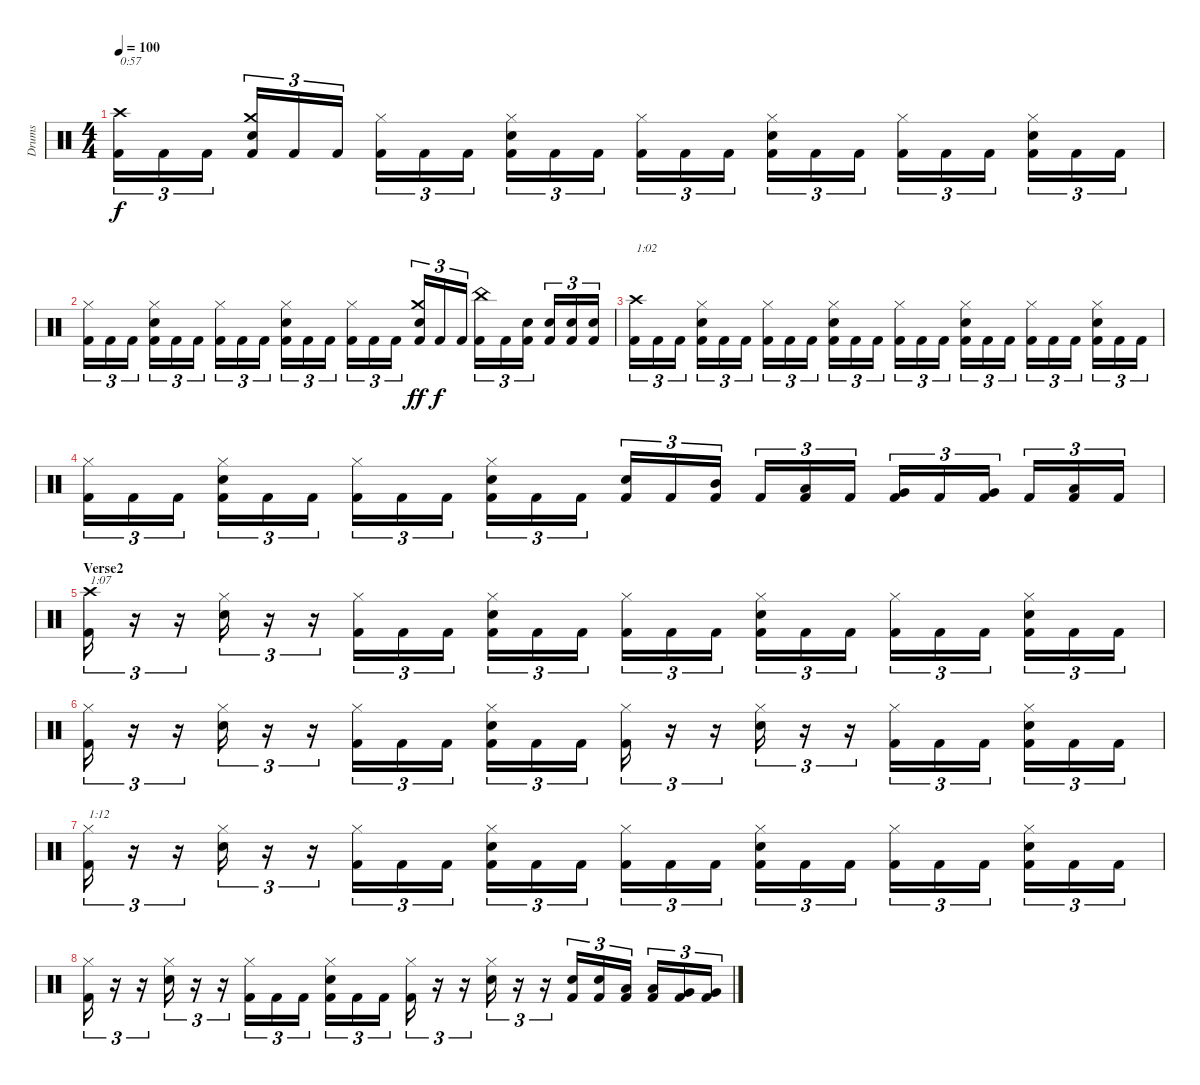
\track ("Drums" "Drums") {instrument percussion}
\staff {score}
\articulation defaults
\ts (4 4)
\tempo 100
\clef neutral
\ks c
("Crash high (hit)" "Kick (hit) 2").16{tu (3 2) txt "0:57" dy f} "Kick (hit) 2".16{tu (3 2)} "Kick (hit) 2".16{tu (3 2)} ("Crash medium (hit)" "Snare (hit) 2" "Kick (hit) 2").16{tu (3 2)} "Kick (hit) 2".16{tu (3 2)} "Kick (hit) 2".16{tu (3 2)} ("Hi-Hat (closed)" "Kick (hit) 2").16{tu (3 2)} "Kick (hit) 2".16{tu (3 2)} "Kick (hit) 2".16{tu (3 2)} ("Hi-Hat (closed)" "Snare (hit) 2" "Kick (hit) 2").16{tu (3 2)} "Kick (hit) 2".16{tu (3 2)} "Kick (hit) 2".16{tu (3 2)} ("Hi-Hat (closed)" "Kick (hit) 2").16{tu (3 2)} "Kick (hit) 2".16{tu (3 2)} "Kick (hit) 2".16{tu (3 2)} ("Hi-Hat (closed)" "Snare (hit) 2" "Kick (hit) 2").16{tu (3 2)} "Kick (hit) 2".16{tu (3 2)} "Kick (hit) 2".16{tu (3 2)} ("Hi-Hat (closed)" "Kick (hit) 2").16{tu (3 2)} "Kick (hit) 2".16{tu (3 2)} "Kick (hit) 2".16{tu (3 2)} ("Hi-Hat (closed)" "Snare (hit) 2" "Kick (hit) 2").16{tu (3 2)} "Kick (hit) 2".16{tu (3 2)} "Kick (hit) 2".16{tu (3 2)} |
("Hi-Hat (closed)" "Kick (hit) 2").16{tu (3 2)} "Kick (hit) 2".16{tu (3 2)} "Kick (hit) 2".16{tu (3 2)} ("Hi-Hat (closed)" "Snare (hit) 2" "Kick (hit) 2").16{tu (3 2)} "Kick (hit) 2".16{tu (3 2)} "Kick (hit) 2".16{tu (3 2)} ("Hi-Hat (closed)" "Kick (hit) 2").16{tu (3 2)} "Kick (hit) 2".16{tu (3 2)} "Kick (hit) 2".16{tu (3 2)} ("Hi-Hat (closed)" "Snare (hit) 2" "Kick (hit) 2").16{tu (3 2)} "Kick (hit) 2".16{tu (3 2)} "Kick (hit) 2".16{tu (3 2)} ("Hi-Hat (closed)" "Kick (hit) 2").16{tu (3 2)} "Kick (hit) 2".16{tu (3 2)} "Kick (hit) 2".16{tu (3 2)} ("Crash medium (hit)" "Snare (hit) 2" "Kick (hit) 2").16{tu (3 2) dy ff} "Kick (hit) 2".16{tu (3 2) dy f} "Kick (hit) 2".16{tu (3 2)} ("China (hit)" "Kick (hit) 2").16{tu (3 2)} "Kick (hit) 2".16{tu (3 2)} ("Snare (hit) 2" "Kick (hit) 2").16{tu (3 2)} ("Snare (hit) 2" "Kick (hit) 2").16{tu (3 2)} ("Snare (hit) 2" "Kick (hit) 2").16{tu (3 2)} ("Snare (hit) 2" "Kick (hit) 2").16{tu (3 2)} |
("Crash high (hit)" "Kick (hit) 2").16{tu (3 2) txt "1:02"} "Kick (hit) 2".16{tu (3 2)} "Kick (hit) 2".16{tu (3 2)} ("Hi-Hat (closed)" "Snare (hit) 2" "Kick (hit) 2").16{tu (3 2)} "Kick (hit) 2".16{tu (3 2)} "Kick (hit) 2".16{tu (3 2)} ("Hi-Hat (closed)" "Kick (hit) 2").16{tu (3 2)} "Kick (hit) 2".16{tu (3 2)} "Kick (hit) 2".16{tu (3 2)} ("Hi-Hat (closed)" "Snare (hit) 2" "Kick (hit) 2").16{tu (3 2)} "Kick (hit) 2".16{tu (3 2)} "Kick (hit) 2".16{tu (3 2)} ("Hi-Hat (closed)" "Kick (hit) 2").16{tu (3 2)} "Kick (hit) 2".16{tu (3 2)} "Kick (hit) 2".16{tu (3 2)} ("Hi-Hat (closed)" "Snare (hit) 2" "Kick (hit) 2").16{tu (3 2)} "Kick (hit) 2".16{tu (3 2)} "Kick (hit) 2".16{tu (3 2)} ("Hi-Hat (closed)" "Kick (hit) 2").16{tu (3 2)} "Kick (hit) 2".16{tu (3 2)} "Kick (hit) 2".16{tu (3 2)} ("Hi-Hat (closed)" "Snare (hit) 2" "Kick (hit) 2").16{tu (3 2)} "Kick (hit) 2".16{tu (3 2)} "Kick (hit) 2".16{tu (3 2)} |
("Hi-Hat (closed)" "Kick (hit) 2").16{tu (3 2)} "Kick (hit) 2".16{tu (3 2)} "Kick (hit) 2".16{tu (3 2)} ("Hi-Hat (closed)" "Snare (hit) 2" "Kick (hit) 2").16{tu (3 2)} "Kick (hit) 2".16{tu (3 2)} "Kick (hit) 2".16{tu (3 2)} ("Hi-Hat (closed)" "Kick (hit) 2").16{tu (3 2)} "Kick (hit) 2".16{tu (3 2)} "Kick (hit) 2".16{tu (3 2)} ("Hi-Hat (closed)" "Snare (hit) 2" "Kick (hit) 2").16{tu (3 2)} "Kick (hit) 2".16{tu (3 2)} "Kick (hit) 2".16{tu (3 2)} ("Snare (hit) 2" "Kick (hit) 2").16{tu (3 2)} "Kick (hit) 2".16{tu (3 2)} ("Mid Tom (hit)" "Kick (hit) 2").16{tu (3 2)} "Kick (hit) 2".16{tu (3 2)} ("Low Tom (hit)" "Kick (hit) 2").16{tu (3 2)} "Kick (hit) 2".16{tu (3 2)} ("Very Low Tom (hit)" "Kick (hit) 2").16{tu (3 2)} "Kick (hit) 2".16{tu (3 2)} ("Very Low Tom (hit)" "Kick (hit) 2").16{tu (3 2)} "Kick (hit) 2".16{tu (3 2)} ("Low Floor Tom (hit)" "Kick (hit) 2").16{tu (3 2)} "Kick (hit) 2".16{tu (3 2)} |
\section ("" "Verse2")
("Crash high (hit)" "Kick (hit) 2").16{tu (3 2) txt "1:07"} r.16{tu (3 2)} r.16{tu (3 2)} ("Hi-Hat (closed)" "Snare (hit) 2").16{tu (3 2)} r.16{tu (3 2)} r.16{tu (3 2)} ("Hi-Hat (closed)" "Kick (hit) 2").16{tu (3 2)} "Kick (hit) 2".16{tu (3 2)} "Kick (hit) 2".16{tu (3 2)} ("Hi-Hat (closed)" "Snare (hit) 2" "Kick (hit) 2").16{tu (3 2)} "Kick (hit) 2".16{tu (3 2)} "Kick (hit) 2".16{tu (3 2)} ("Hi-Hat (closed)" "Kick (hit) 2").16{tu (3 2)} "Kick (hit) 2".16{tu (3 2)} "Kick (hit) 2".16{tu (3 2)} ("Hi-Hat (closed)" "Snare (hit) 2" "Kick (hit) 2").16{tu (3 2)} "Kick (hit) 2".16{tu (3 2)} "Kick (hit) 2".16{tu (3 2)} ("Hi-Hat (closed)" "Kick (hit) 2").16{tu (3 2)} "Kick (hit) 2".16{tu (3 2)} "Kick (hit) 2".16{tu (3 2)} ("Hi-Hat (closed)" "Snare (hit) 2" "Kick (hit) 2").16{tu (3 2)} "Kick (hit) 2".16{tu (3 2)} "Kick (hit) 2".16{tu (3 2)} |
("Hi-Hat (closed)" "Kick (hit) 2").16{tu (3 2)} r.16{tu (3 2)} r.16{tu (3 2)} ("Hi-Hat (closed)" "Snare (hit) 2").16{tu (3 2)} r.16{tu (3 2)} r.16{tu (3 2)} ("Hi-Hat (closed)" "Kick (hit) 2").16{tu (3 2)} "Kick (hit) 2".16{tu (3 2)} "Kick (hit) 2".16{tu (3 2)} ("Hi-Hat (closed)" "Snare (hit) 2" "Kick (hit) 2").16{tu (3 2)} "Kick (hit) 2".16{tu (3 2)} "Kick (hit) 2".16{tu (3 2)} ("Hi-Hat (closed)" "Kick (hit) 2").16{tu (3 2)} r.16{tu (3 2)} r.16{tu (3 2)} ("Hi-Hat (closed)" "Snare (hit) 2").16{tu (3 2)} r.16{tu (3 2)} r.16{tu (3 2)} ("Hi-Hat (closed)" "Kick (hit) 2").16{tu (3 2)} "Kick (hit) 2".16{tu (3 2)} "Kick (hit) 2".16{tu (3 2)} ("Hi-Hat (closed)" "Snare (hit) 2" "Kick (hit) 2").16{tu (3 2)} "Kick (hit) 2".16{tu (3 2)} "Kick (hit) 2".16{tu (3 2)} |
("Hi-Hat (closed)" "Kick (hit) 2").16{tu (3 2) txt "1:12"} r.16{tu (3 2)} r.16{tu (3 2)} ("Hi-Hat (closed)" "Snare (hit) 2").16{tu (3 2)} r.16{tu (3 2)} r.16{tu (3 2)} ("Hi-Hat (closed)" "Kick (hit) 2").16{tu (3 2)} "Kick (hit) 2".16{tu (3 2)} "Kick (hit) 2".16{tu (3 2)} ("Hi-Hat (closed)" "Snare (hit) 2" "Kick (hit) 2").16{tu (3 2)} "Kick (hit) 2".16{tu (3 2)} "Kick (hit) 2".16{tu (3 2)} ("Hi-Hat (closed)" "Kick (hit) 2").16{tu (3 2)} "Kick (hit) 2".16{tu (3 2)} "Kick (hit) 2".16{tu (3 2)} ("Hi-Hat (closed)" "Snare (hit) 2" "Kick (hit) 2").16{tu (3 2)} "Kick (hit) 2".16{tu (3 2)} "Kick (hit) 2".16{tu (3 2)} ("Hi-Hat (closed)" "Kick (hit) 2").16{tu (3 2)} "Kick (hit) 2".16{tu (3 2)} "Kick (hit) 2".16{tu (3 2)} ("Hi-Hat (closed)" "Snare (hit) 2" "Kick (hit) 2").16{tu (3 2)} "Kick (hit) 2".16{tu (3 2)} "Kick (hit) 2".16{tu (3 2)} |
("Hi-Hat (closed)" "Kick (hit) 2").16{tu (3 2)} r.16{tu (3 2)} r.16{tu (3 2)} ("Hi-Hat (closed)" "Snare (hit) 2").16{tu (3 2)} r.16{tu (3 2)} r.16{tu (3 2)} ("Hi-Hat (closed)" "Kick (hit) 2").16{tu (3 2)} "Kick (hit) 2".16{tu (3 2)} "Kick (hit) 2".16{tu (3 2)} ("Hi-Hat (closed)" "Snare (hit) 2" "Kick (hit) 2").16{tu (3 2)} "Kick (hit) 2".16{tu (3 2)} "Kick (hit) 2".16{tu (3 2)} ("Hi-Hat (closed)" "Kick (hit) 2").16{tu (3 2)} r.16{tu (3 2)} r.16{tu (3 2)} ("Hi-Hat (closed)" "Snare (hit) 2").16{tu (3 2)} r.16{tu (3 2)} r.16{tu (3 2)} ("Snare (hit) 2" "Kick (hit) 2").16{tu (3 2)} ("Snare (hit) 2" "Kick (hit) 2").16{tu (3 2)} ("Low Tom (hit)" "Kick (hit) 2").16{tu (3 2)} ("Low Tom (hit)" "Kick (hit) 2").16{tu (3 2)} ("Very Low Tom (hit)" "Kick (hit) 2").16{tu (3 2)} ("Very Low Tom (hit)" "Kick (hit) 2").16{tu (3 2)}
